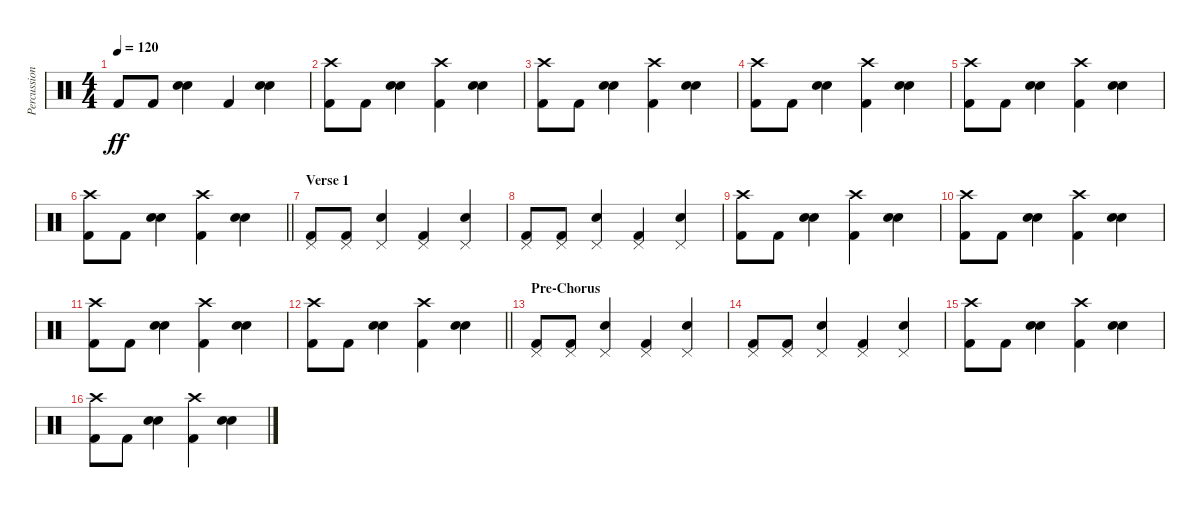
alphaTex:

\track ("Percussion" "Percussion") {instrument percussion}
\staff {score}
\articulation defaults
\ts (4 4)
\tempo 120
\clef neutral
\ks c "Kick (hit) 2".8{dy ff} "Kick (hit) 2".8
("Snare (hit) 2" "Snare (hit) 2").4 "Kick (hit) 2".4 ("Snare (hit) 2" "Snare (hit) 2").4 |
("Kick (hit) 2" "Crash high (hit)").8 "Kick (hit) 2".8 ("Snare (hit) 2" "Snare (hit) 2").4 ("Kick (hit) 2" "Crash high (hit)").4 ("Snare (hit) 2" "Snare (hit) 2").4 |
("Kick (hit) 2" "Crash high (hit)").8 "Kick (hit) 2".8 ("Snare (hit) 2" "Snare (hit) 2").4 ("Kick (hit) 2" "Crash high (hit)").4 ("Snare (hit) 2" "Snare (hit) 2").4 |
("Kick (hit) 2" "Crash high (hit)").8 "Kick (hit) 2".8 ("Snare (hit) 2" "Snare (hit) 2").4 ("Kick (hit) 2" "Crash high (hit)").4 ("Snare (hit) 2" "Snare (hit) 2").4 |
("Kick (hit) 2" "Crash high (hit)").8 "Kick (hit) 2".8 ("Snare (hit) 2" "Snare (hit) 2").4 ("Kick (hit) 2" "Crash high (hit)").4 ("Snare (hit) 2" "Snare (hit) 2").4 |
\barLineRight lightlight
("Kick (hit) 2" "Crash high (hit)").8 "Kick (hit) 2".8 ("Snare (hit) 2" "Snare (hit) 2").4 ("Kick (hit) 2" "Crash high (hit)").4 ("Snare (hit) 2" "Snare (hit) 2").4 |
\section ("" "Verse 1")
("Kick (hit) 2" "Pedal Hi-Hat (hit)").8 ("Kick (hit) 2" "Pedal Hi-Hat (hit)").8 ("Snare (hit) 2" "Pedal Hi-Hat (hit)").4 ("Kick (hit) 2" "Pedal Hi-Hat (hit)").4 ("Snare (hit) 2" "Pedal Hi-Hat (hit)").4 |
("Kick (hit) 2" "Pedal Hi-Hat (hit)").8 ("Kick (hit) 2" "Pedal Hi-Hat (hit)").8 ("Snare (hit) 2" "Pedal Hi-Hat (hit)").4 ("Kick (hit) 2" "Pedal Hi-Hat (hit)").4 ("Snare (hit) 2" "Pedal Hi-Hat (hit)").4 |
("Kick (hit) 2" "Crash high (hit)").8 "Kick (hit) 2".8 ("Snare (hit) 2" "Snare (hit) 2").4 ("Kick (hit) 2" "Crash high (hit)").4 ("Snare (hit) 2" "Snare (hit) 2").4 |
("Kick (hit) 2" "Crash high (hit)").8 "Kick (hit) 2".8 ("Snare (hit) 2" "Snare (hit) 2").4 ("Kick (hit) 2" "Crash high (hit)").4 ("Snare (hit) 2" "Snare (hit) 2").4 |
("Kick (hit) 2" "Crash high (hit)").8 "Kick (hit) 2".8 ("Snare (hit) 2" "Snare (hit) 2").4 ("Kick (hit) 2" "Crash high (hit)").4 ("Snare (hit) 2" "Snare (hit) 2").4 |
\barLineRight lightlight
("Kick (hit) 2" "Crash high (hit)").8 "Kick (hit) 2".8 ("Snare (hit) 2" "Snare (hit) 2").4 ("Kick (hit) 2" "Crash high (hit)").4 ("Snare (hit) 2" "Snare (hit) 2").4 |
\section ("" "Pre-Chorus")
("Kick (hit) 2" "Pedal Hi-Hat (hit)").8 ("Kick (hit) 2" "Pedal Hi-Hat (hit)").8 ("Snare (hit) 2" "Pedal Hi-Hat (hit)").4 ("Kick (hit) 2" "Pedal Hi-Hat (hit)").4 ("Snare (hit) 2" "Pedal Hi-Hat (hit)").4 |
("Kick (hit) 2" "Pedal Hi-Hat (hit)").8 ("Kick (hit) 2" "Pedal Hi-Hat (hit)").8 ("Snare (hit) 2" "Pedal Hi-Hat (hit)").4 ("Kick (hit) 2" "Pedal Hi-Hat (hit)").4 ("Snare (hit) 2" "Pedal Hi-Hat (hit)").4 |
("Kick (hit) 2" "Crash high (hit)").8 "Kick (hit) 2".8 ("Snare (hit) 2" "Snare (hit) 2").4 ("Kick (hit) 2" "Crash high (hit)").4 ("Snare (hit) 2" "Snare (hit) 2").4 |
("Kick (hit) 2" "Crash high (hit)").8 "Kick (hit) 2".8 ("Snare (hit) 2" "Snare (hit) 2").4 ("Kick (hit) 2" "Crash high (hit)").4 ("Snare (hit) 2" "Snare (hit) 2").4
